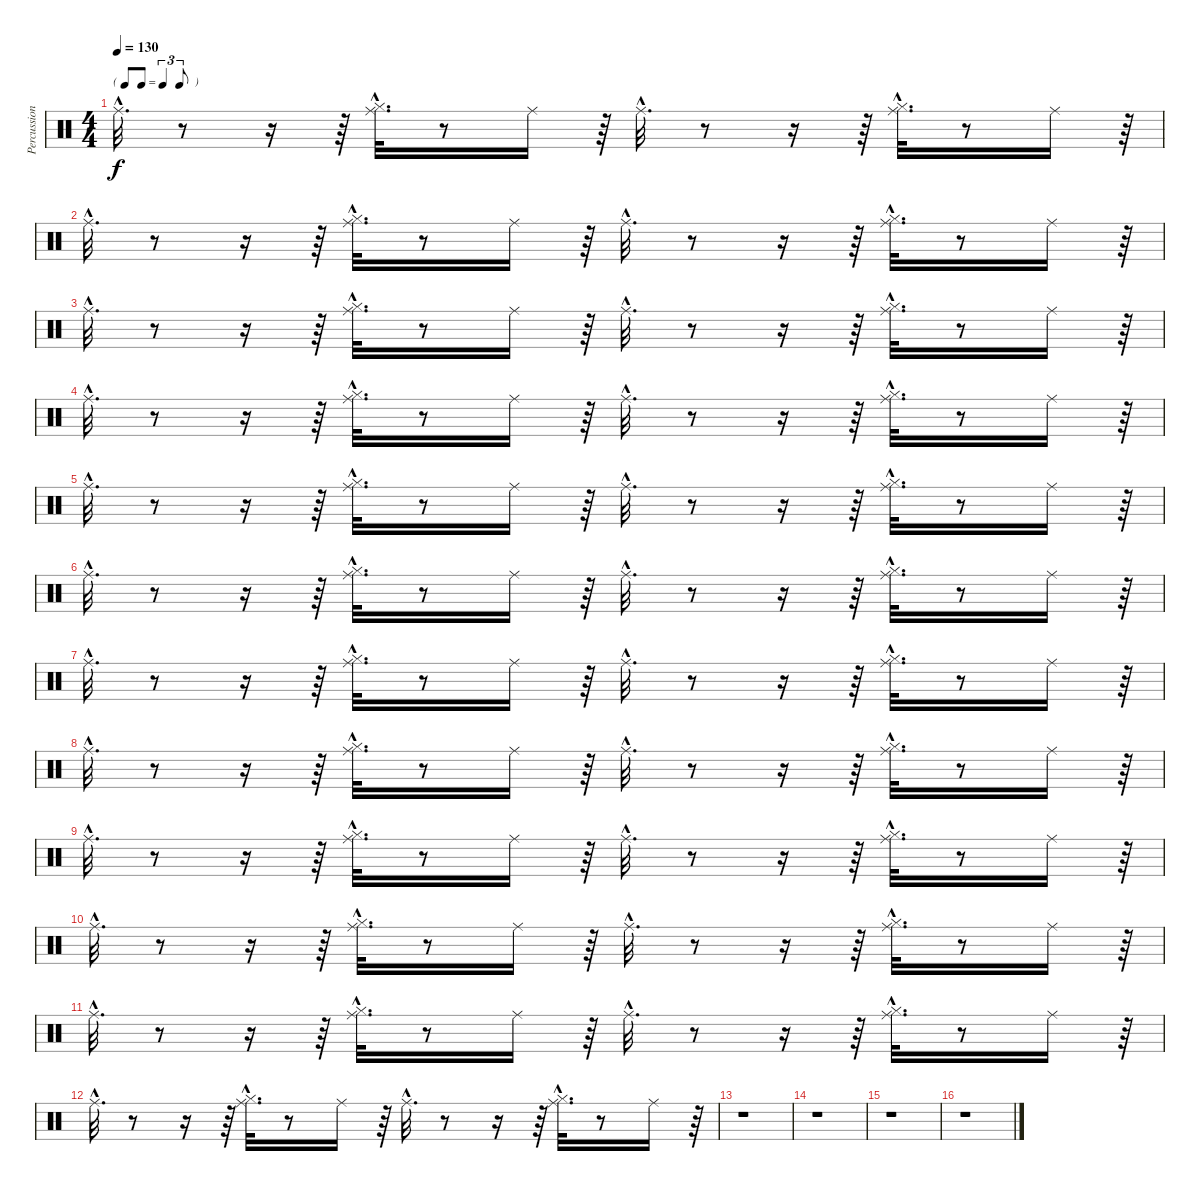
\track ("Percussions" "Percussion") {instrument percussion}
\staff {score}
\articulation defaults
\ts (4 4)
\tf triplet8th
\tempo 130
\clef neutral
\ks c "Ride (middle)"{hac}.32{d dy f}
r.8 r.16 r.64 ("Hi-Hat (closed)"{hac} "Ride (middle)"{hac}).32{d} r.8 "Ride (middle)".16 r.64 "Ride (middle)"{hac}.32{d} r.8 r.16 r.64 ("Hi-Hat (closed)"{hac} "Ride (middle)"{hac}).32{d} r.8 "Ride (middle)".16 r.64 |
"Ride (middle)"{hac}.32{d} r.8 r.16 r.64 ("Hi-Hat (closed)"{hac} "Ride (middle)"{hac}).32{d} r.8 "Ride (middle)".16 r.64 "Ride (middle)"{hac}.32{d} r.8 r.16 r.64 ("Hi-Hat (closed)"{hac} "Ride (middle)"{hac}).32{d} r.8 "Ride (middle)".16 r.64 |
"Ride (middle)"{hac}.32{d} r.8 r.16 r.64 ("Hi-Hat (closed)"{hac} "Ride (middle)"{hac}).32{d} r.8 "Ride (middle)".16 r.64 "Ride (middle)"{hac}.32{d} r.8 r.16 r.64 ("Hi-Hat (closed)"{hac} "Ride (middle)"{hac}).32{d} r.8 "Ride (middle)".16 r.64 |
"Ride (middle)"{hac}.32{d} r.8 r.16 r.64 ("Hi-Hat (closed)"{hac} "Ride (middle)"{hac}).32{d} r.8 "Ride (middle)".16 r.64 "Ride (middle)"{hac}.32{d} r.8 r.16 r.64 ("Hi-Hat (closed)"{hac} "Ride (middle)"{hac}).32{d} r.8 "Ride (middle)".16 r.64 |
"Ride (middle)"{hac}.32{d} r.8 r.16 r.64 ("Hi-Hat (closed)"{hac} "Ride (middle)"{hac}).32{d} r.8 "Ride (middle)".16 r.64 "Ride (middle)"{hac}.32{d} r.8 r.16 r.64 ("Hi-Hat (closed)"{hac} "Ride (middle)"{hac}).32{d} r.8 "Ride (middle)".16 r.64 |
"Ride (middle)"{hac}.32{d} r.8 r.16 r.64 ("Hi-Hat (closed)"{hac} "Ride (middle)"{hac}).32{d} r.8 "Ride (middle)".16 r.64 "Ride (middle)"{hac}.32{d} r.8 r.16 r.64 ("Hi-Hat (closed)"{hac} "Ride (middle)"{hac}).32{d} r.8 "Ride (middle)".16 r.64 |
"Ride (middle)"{hac}.32{d} r.8 r.16 r.64 ("Hi-Hat (closed)"{hac} "Ride (middle)"{hac}).32{d} r.8 "Ride (middle)".16 r.64 "Ride (middle)"{hac}.32{d} r.8 r.16 r.64 ("Hi-Hat (closed)"{hac} "Ride (middle)"{hac}).32{d} r.8 "Ride (middle)".16 r.64 |
"Ride (middle)"{hac}.32{d} r.8 r.16 r.64 ("Hi-Hat (closed)"{hac} "Ride (middle)"{hac}).32{d} r.8 "Ride (middle)".16 r.64 "Ride (middle)"{hac}.32{d} r.8 r.16 r.64 ("Hi-Hat (closed)"{hac} "Ride (middle)"{hac}).32{d} r.8 "Ride (middle)".16 r.64 |
"Ride (middle)"{hac}.32{d} r.8 r.16 r.64 ("Hi-Hat (closed)"{hac} "Ride (middle)"{hac}).32{d} r.8 "Ride (middle)".16 r.64 "Ride (middle)"{hac}.32{d} r.8 r.16 r.64 ("Hi-Hat (closed)"{hac} "Ride (middle)"{hac}).32{d} r.8 "Ride (middle)".16 r.64 |
"Ride (middle)"{hac}.32{d} r.8 r.16 r.64 ("Hi-Hat (closed)"{hac} "Ride (middle)"{hac}).32{d} r.8 "Ride (middle)".16 r.64 "Ride (middle)"{hac}.32{d} r.8 r.16 r.64 ("Hi-Hat (closed)"{hac} "Ride (middle)"{hac}).32{d} r.8 "Ride (middle)".16 r.64 |
"Ride (middle)"{hac}.32{d} r.8 r.16 r.64 ("Hi-Hat (closed)"{hac} "Ride (middle)"{hac}).32{d} r.8 "Ride (middle)".16 r.64 "Ride (middle)"{hac}.32{d} r.8 r.16 r.64 ("Hi-Hat (closed)"{hac} "Ride (middle)"{hac}).32{d} r.8 "Ride (middle)".16 r.64 |
"Ride (middle)"{hac}.32{d} r.8 r.16 r.64 ("Hi-Hat (closed)"{hac} "Ride (middle)"{hac}).32{d} r.8 "Ride (middle)".16 r.64 "Ride (middle)"{hac}.32{d} r.8 r.16 r.64 ("Hi-Hat (closed)"{hac} "Ride (middle)"{hac}).32{d} r.8 "Ride (middle)".16 r.64 |
r.1 |
r.1 |
r.1 |
r.1
